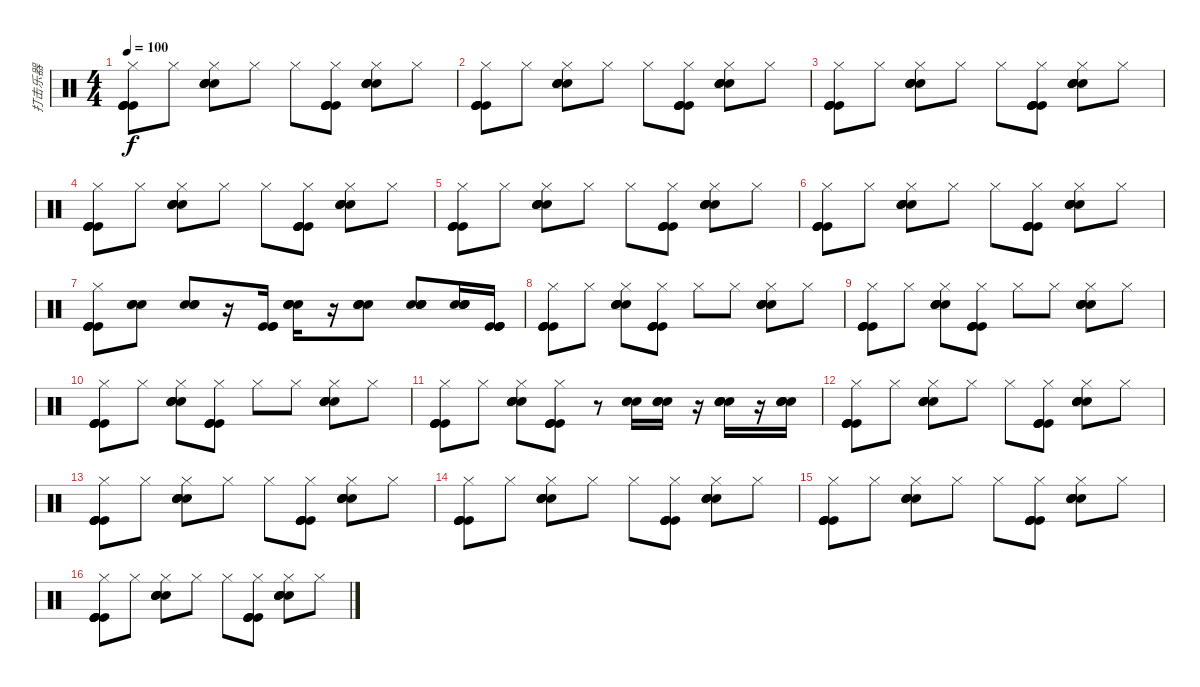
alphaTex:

\track ("打击乐器" "打击乐器") {instrument percussion}
\staff {score}
\articulation defaults
\ts (4 4)
\tempo 100
\clef neutral
\ks c
("Hi-Hat (closed)" "Kick (hit)" "Kick (hit)" "Kick (hit)" "Kick (hit)").8{dy f} "Hi-Hat (closed)".8 ("Hi-Hat (closed)" "Snare (hit) 2" "Snare (hit) 2" "Snare (hit) 2" "Snare (hit) 2").8 "Hi-Hat (closed)".8 "Hi-Hat (closed)".8 ("Hi-Hat (closed)" "Kick (hit)" "Kick (hit)" "Kick (hit)" "Kick (hit)").8 ("Hi-Hat (closed)" "Snare (hit) 2" "Snare (hit) 2" "Snare (hit) 2" "Snare (hit) 2").8 "Hi-Hat (closed)".8 |
("Hi-Hat (closed)" "Kick (hit)" "Kick (hit)" "Kick (hit)" "Kick (hit)").8 "Hi-Hat (closed)".8 ("Hi-Hat (closed)" "Snare (hit) 2" "Snare (hit) 2" "Snare (hit) 2" "Snare (hit) 2").8 "Hi-Hat (closed)".8 "Hi-Hat (closed)".8 ("Hi-Hat (closed)" "Kick (hit)" "Kick (hit)" "Kick (hit)" "Kick (hit)").8 ("Hi-Hat (closed)" "Snare (hit) 2" "Snare (hit) 2" "Snare (hit) 2" "Snare (hit) 2").8 "Hi-Hat (closed)".8 |
("Hi-Hat (closed)" "Kick (hit)" "Kick (hit)" "Kick (hit)" "Kick (hit)").8 "Hi-Hat (closed)".8 ("Hi-Hat (closed)" "Snare (hit) 2" "Snare (hit) 2" "Snare (hit) 2" "Snare (hit) 2").8 "Hi-Hat (closed)".8 "Hi-Hat (closed)".8 ("Hi-Hat (closed)" "Kick (hit)" "Kick (hit)" "Kick (hit)" "Kick (hit)").8 ("Hi-Hat (closed)" "Snare (hit) 2" "Snare (hit) 2" "Snare (hit) 2" "Snare (hit) 2").8 "Hi-Hat (closed)".8 |
("Hi-Hat (closed)" "Kick (hit)" "Kick (hit)" "Kick (hit)" "Kick (hit)").8 "Hi-Hat (closed)".8 ("Hi-Hat (closed)" "Snare (hit) 2" "Snare (hit) 2" "Snare (hit) 2" "Snare (hit) 2").8 "Hi-Hat (closed)".8 "Hi-Hat (closed)".8 ("Hi-Hat (closed)" "Kick (hit)" "Kick (hit)" "Kick (hit)" "Kick (hit)").8 ("Hi-Hat (closed)" "Snare (hit) 2" "Snare (hit) 2" "Snare (hit) 2" "Snare (hit) 2").8 "Hi-Hat (closed)".8 |
("Hi-Hat (closed)" "Kick (hit)" "Kick (hit)" "Kick (hit)" "Kick (hit)").8 "Hi-Hat (closed)".8 ("Hi-Hat (closed)" "Snare (hit) 2" "Snare (hit) 2" "Snare (hit) 2" "Snare (hit) 2").8 "Hi-Hat (closed)".8 "Hi-Hat (closed)".8 ("Hi-Hat (closed)" "Kick (hit)" "Kick (hit)" "Kick (hit)" "Kick (hit)").8 ("Hi-Hat (closed)" "Snare (hit) 2" "Snare (hit) 2" "Snare (hit) 2" "Snare (hit) 2").8 "Hi-Hat (closed)".8 |
("Hi-Hat (closed)" "Kick (hit)" "Kick (hit)" "Kick (hit)" "Kick (hit)").8 "Hi-Hat (closed)".8 ("Hi-Hat (closed)" "Snare (hit) 2" "Snare (hit) 2" "Snare (hit) 2" "Snare (hit) 2").8 "Hi-Hat (closed)".8 "Hi-Hat (closed)".8 ("Hi-Hat (closed)" "Kick (hit)" "Kick (hit)" "Kick (hit)" "Kick (hit)").8 ("Hi-Hat (closed)" "Snare (hit) 2" "Snare (hit) 2" "Snare (hit) 2" "Snare (hit) 2").8 "Hi-Hat (closed)".8 |
("Hi-Hat (closed)" "Kick (hit)" "Kick (hit)" "Kick (hit)" "Kick (hit)").8 ("Snare (hit) 2" "Snare (hit) 2" "Snare (hit) 2").8 ("Snare (hit) 2" "Snare (hit) 2" "Snare (hit) 2").8 r.16 ("Kick (hit)" "Kick (hit)" "Kick (hit)").16 ("Snare (hit) 2" "Snare (hit) 2" "Snare (hit) 2" "Snare (hit) 2").16 r.16 ("Snare (hit) 2" "Snare (hit) 2" "Snare (hit) 2" "Snare (hit) 2").8 ("Snare (hit) 2" "Snare (hit) 2" "Snare (hit) 2" "Snare (hit) 2").8 ("Snare (hit) 2" "Snare (hit) 2" "Snare (hit) 2" "Snare (hit) 2").16 ("Kick (hit)" "Kick (hit)" "Kick (hit)" "Kick (hit)").16 |
("Hi-Hat (closed)" "Kick (hit)" "Kick (hit)" "Kick (hit)" "Kick (hit)").8 "Hi-Hat (closed)".8 ("Hi-Hat (closed)" "Snare (hit) 2" "Snare (hit) 2" "Snare (hit) 2" "Snare (hit) 2").8 ("Hi-Hat (closed)" "Kick (hit)" "Kick (hit)" "Kick (hit)" "Kick (hit)").8 "Hi-Hat (closed)".8 "Hi-Hat (closed)".8 ("Hi-Hat (closed)" "Snare (hit) 2" "Snare (hit) 2" "Snare (hit) 2" "Snare (hit) 2").8 "Hi-Hat (closed)".8 |
("Hi-Hat (closed)" "Kick (hit)" "Kick (hit)" "Kick (hit)" "Kick (hit)").8 "Hi-Hat (closed)".8 ("Hi-Hat (closed)" "Snare (hit) 2" "Snare (hit) 2" "Snare (hit) 2" "Snare (hit) 2").8 ("Hi-Hat (closed)" "Kick (hit)" "Kick (hit)" "Kick (hit)" "Kick (hit)").8 "Hi-Hat (closed)".8 "Hi-Hat (closed)".8 ("Hi-Hat (closed)" "Snare (hit) 2" "Snare (hit) 2" "Snare (hit) 2" "Snare (hit) 2").8 "Hi-Hat (closed)".8 |
("Hi-Hat (closed)" "Kick (hit)" "Kick (hit)" "Kick (hit)" "Kick (hit)").8 "Hi-Hat (closed)".8 ("Hi-Hat (closed)" "Snare (hit) 2" "Snare (hit) 2" "Snare (hit) 2" "Snare (hit) 2").8 ("Hi-Hat (closed)" "Kick (hit)" "Kick (hit)" "Kick (hit)" "Kick (hit)").8 "Hi-Hat (closed)".8 "Hi-Hat (closed)".8 ("Hi-Hat (closed)" "Snare (hit) 2" "Snare (hit) 2" "Snare (hit) 2" "Snare (hit) 2").8 "Hi-Hat (closed)".8 |
("Hi-Hat (closed)" "Kick (hit)" "Kick (hit)" "Kick (hit)" "Kick (hit)").8 "Hi-Hat (closed)".8 ("Hi-Hat (closed)" "Snare (hit) 2" "Snare (hit) 2" "Snare (hit) 2" "Snare (hit) 2").8 ("Hi-Hat (closed)" "Kick (hit)" "Kick (hit)" "Kick (hit)" "Kick (hit)").8 r.8 ("Snare (hit) 2" "Snare (hit) 2" "Snare (hit) 2").16 ("Snare (hit) 2" "Snare (hit) 2" "Snare (hit) 2" "Snare (hit) 2").16 r.16 ("Snare (hit) 2" "Snare (hit) 2" "Snare (hit) 2" "Snare (hit) 2").16 r.16 ("Snare (hit) 2" "Snare (hit) 2" "Snare (hit) 2" "Snare (hit) 2").16 |
("Hi-Hat (closed)" "Kick (hit)" "Kick (hit)" "Kick (hit)" "Kick (hit)").8 "Hi-Hat (closed)".8 ("Hi-Hat (closed)" "Snare (hit) 2" "Snare (hit) 2" "Snare (hit) 2" "Snare (hit) 2").8 "Hi-Hat (closed)".8 "Hi-Hat (closed)".8 ("Hi-Hat (closed)" "Kick (hit)" "Kick (hit)" "Kick (hit)" "Kick (hit)").8 ("Hi-Hat (closed)" "Snare (hit) 2" "Snare (hit) 2" "Snare (hit) 2" "Snare (hit) 2").8 "Hi-Hat (closed)".8 |
("Hi-Hat (closed)" "Kick (hit)" "Kick (hit)" "Kick (hit)" "Kick (hit)").8 "Hi-Hat (closed)".8 ("Hi-Hat (closed)" "Snare (hit) 2" "Snare (hit) 2" "Snare (hit) 2" "Snare (hit) 2").8 "Hi-Hat (closed)".8 "Hi-Hat (closed)".8 ("Hi-Hat (closed)" "Kick (hit)" "Kick (hit)" "Kick (hit)" "Kick (hit)").8 ("Hi-Hat (closed)" "Snare (hit) 2" "Snare (hit) 2" "Snare (hit) 2" "Snare (hit) 2").8 "Hi-Hat (closed)".8 |
("Hi-Hat (closed)" "Kick (hit)" "Kick (hit)" "Kick (hit)" "Kick (hit)").8 "Hi-Hat (closed)".8 ("Hi-Hat (closed)" "Snare (hit) 2" "Snare (hit) 2" "Snare (hit) 2" "Snare (hit) 2").8 "Hi-Hat (closed)".8 "Hi-Hat (closed)".8 ("Hi-Hat (closed)" "Kick (hit)" "Kick (hit)" "Kick (hit)" "Kick (hit)").8 ("Hi-Hat (closed)" "Snare (hit) 2" "Snare (hit) 2" "Snare (hit) 2" "Snare (hit) 2").8 "Hi-Hat (closed)".8 |
("Hi-Hat (closed)" "Kick (hit)" "Kick (hit)" "Kick (hit)" "Kick (hit)").8 "Hi-Hat (closed)".8 ("Hi-Hat (closed)" "Snare (hit) 2" "Snare (hit) 2" "Snare (hit) 2" "Snare (hit) 2").8 "Hi-Hat (closed)".8 "Hi-Hat (closed)".8 ("Hi-Hat (closed)" "Kick (hit)" "Kick (hit)" "Kick (hit)" "Kick (hit)").8 ("Hi-Hat (closed)" "Snare (hit) 2" "Snare (hit) 2" "Snare (hit) 2" "Snare (hit) 2").8 "Hi-Hat (closed)".8 |
("Hi-Hat (closed)" "Kick (hit)" "Kick (hit)" "Kick (hit)" "Kick (hit)").8 "Hi-Hat (closed)".8 ("Hi-Hat (closed)" "Snare (hit) 2" "Snare (hit) 2" "Snare (hit) 2" "Snare (hit) 2").8 "Hi-Hat (closed)".8 "Hi-Hat (closed)".8 ("Hi-Hat (closed)" "Kick (hit)" "Kick (hit)" "Kick (hit)" "Kick (hit)").8 ("Hi-Hat (closed)" "Snare (hit) 2" "Snare (hit) 2" "Snare (hit) 2" "Snare (hit) 2").8 "Hi-Hat (closed)".8
